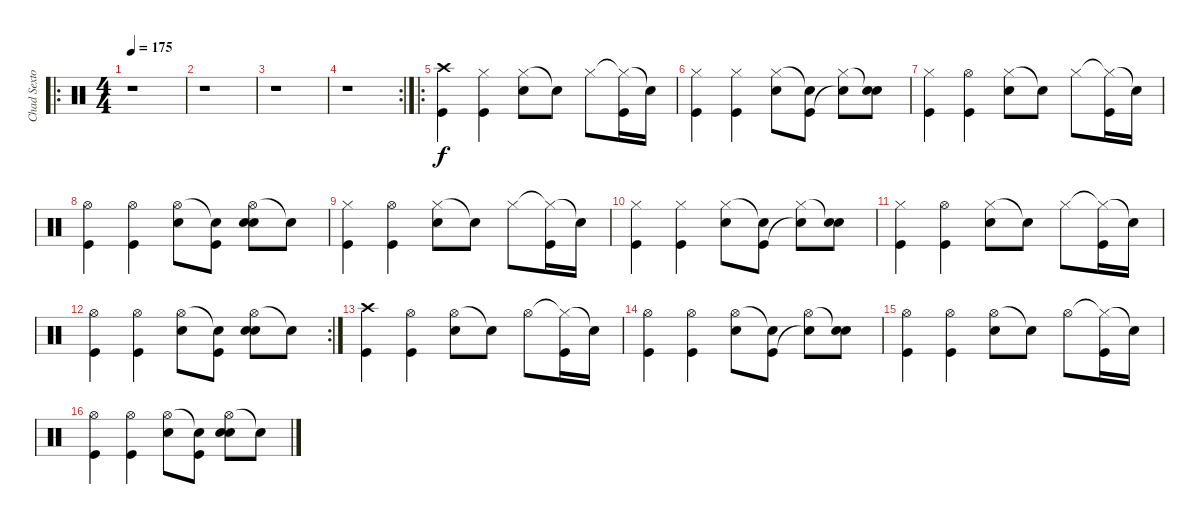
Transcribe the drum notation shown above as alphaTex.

\track ("Chad Sexton" "Chad Sexto") {instrument percussion}
\staff {score}
\articulation defaults
\ro
\ts (4 4)
\tempo 175
\clef neutral
\ks c
r.1{dy f} |
r.1 |
r.1 |
\rc 2
r.1 |
\ro
("Crash high (hit)" "Kick (hit)").4 ("Hi-Hat (closed)" "Kick (hit)").4 ("Hi-Hat (closed)" "Snare (hit) 2").8 "Snare (hit)"{t}.8 "Hi-Hat (closed)".8 ("Hi-Hat (closed)"{t} "Kick (hit)").16 "Snare (hit)"{t}.16 |
("Hi-Hat (closed)" "Kick (hit)").4 ("Hi-Hat (closed)" "Kick (hit)").4 ("Hi-Hat (closed)" "Snare (hit) 2").8 ("Snare (hit)"{t} "Kick (hit)").8 ("Hi-Hat (closed)" "Snare (hit)"{t}).8 ("Snare (hit)"{t} "Snare (hit) 2").8 |
("Hi-Hat (closed)" "Kick (hit)").4 ("Hi-Hat (open)" "Kick (hit)").4 ("Hi-Hat (closed)" "Snare (hit) 2").8 "Snare (hit)"{t}.8 "Hi-Hat (closed)".8 ("Hi-Hat (closed)"{t} "Kick (hit)").16 "Snare (hit)"{t}.16 |
("Hi-Hat (open)" "Kick (hit)").4 ("Hi-Hat (open)" "Kick (hit)").4 ("Hi-Hat (open)" "Snare (hit) 2").8 ("Snare (hit)"{t} "Kick (hit)").8 ("Hi-Hat (open)" "Snare (hit) 2" "Snare (hit)").8 "Snare (hit)"{t}.8 |
("Hi-Hat (closed)" "Kick (hit)").4 ("Hi-Hat (open)" "Kick (hit)").4 ("Hi-Hat (closed)" "Snare (hit) 2").8 "Snare (hit)"{t}.8 "Hi-Hat (closed)".8 ("Hi-Hat (closed)"{t} "Kick (hit)").16 "Snare (hit)"{t}.16 |
("Hi-Hat (closed)" "Kick (hit)").4 ("Hi-Hat (closed)" "Kick (hit)").4 ("Hi-Hat (closed)" "Snare (hit) 2").8 ("Snare (hit)"{t} "Kick (hit)").8 ("Hi-Hat (closed)" "Snare (hit)"{t}).8 ("Snare (hit)"{t} "Snare (hit) 2").8 |
("Hi-Hat (closed)" "Kick (hit)").4 ("Hi-Hat (open)" "Kick (hit)").4 ("Hi-Hat (closed)" "Snare (hit) 2").8 "Snare (hit)"{t}.8 "Hi-Hat (closed)".8 ("Hi-Hat (closed)"{t} "Kick (hit)").16 "Snare (hit)"{t}.16 |
\rc 2
("Hi-Hat (open)" "Kick (hit)").4 ("Hi-Hat (open)" "Kick (hit)").4 ("Hi-Hat (open)" "Snare (hit) 2").8 ("Snare (hit)"{t} "Kick (hit)").8 ("Hi-Hat (open)" "Snare (hit) 2" "Snare (hit)").8 "Snare (hit)"{t}.8 |
("Crash high (hit)" "Kick (hit)").4 ("Hi-Hat (open)" "Kick (hit)").4 ("Hi-Hat (open)" "Snare (hit) 2").8 "Snare (hit)"{t}.8 "Hi-Hat (open)".8 ("Hi-Hat (closed)"{t} "Kick (hit)").16 "Snare (hit)"{t}.16 |
("Hi-Hat (open)" "Kick (hit)").4 ("Hi-Hat (open)" "Kick (hit)").4 ("Hi-Hat (open)" "Snare (hit) 2").8 ("Snare (hit)"{t} "Kick (hit)").8 ("Hi-Hat (open)" "Snare (hit)"{t}).8 ("Snare (hit)"{t} "Snare (hit) 2").8 |
("Hi-Hat (open)" "Kick (hit)").4 ("Hi-Hat (open)" "Kick (hit)").4 ("Hi-Hat (open)" "Snare (hit) 2").8 "Snare (hit)"{t}.8 "Hi-Hat (open)".8 ("Hi-Hat (closed)"{t} "Kick (hit)").16 "Snare (hit)"{t}.16 |
("Hi-Hat (open)" "Kick (hit)").4 ("Hi-Hat (open)" "Kick (hit)").4 ("Hi-Hat (open)" "Snare (hit) 2").8 ("Snare (hit)"{t} "Kick (hit)").8 ("Hi-Hat (open)" "Snare (hit) 2" "Snare (hit)").8 "Snare (hit)"{t}.8
